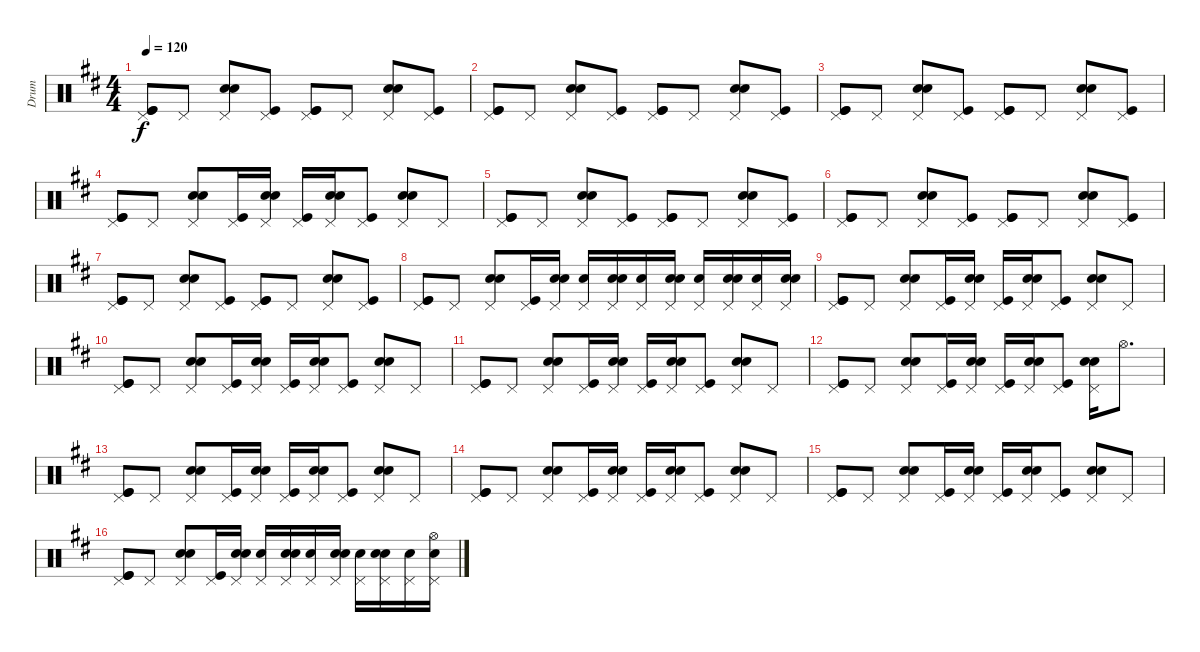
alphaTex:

\track ("Drum" "Drum") {instrument percussion}
\staff {score}
\articulation defaults
\ts (4 4)
\tempo 120
\clef neutral
\ks d
("Pedal Hi-Hat (hit)" "Kick (hit)" "Kick (hit)").8{dy f} "Pedal Hi-Hat (hit)".8 ("Pedal Hi-Hat (hit)" "Electric Snare (hit)" "Electric Snare (hit)").8 ("Pedal Hi-Hat (hit)" "Kick (hit)").8 ("Pedal Hi-Hat (hit)" "Kick (hit)" "Kick (hit)").8 "Pedal Hi-Hat (hit)".8 ("Pedal Hi-Hat (hit)" "Electric Snare (hit)" "Electric Snare (hit)").8 ("Pedal Hi-Hat (hit)" "Kick (hit)").8 |
("Pedal Hi-Hat (hit)" "Kick (hit)" "Kick (hit)").8 "Pedal Hi-Hat (hit)".8 ("Pedal Hi-Hat (hit)" "Electric Snare (hit)" "Electric Snare (hit)").8 ("Pedal Hi-Hat (hit)" "Kick (hit)").8 ("Pedal Hi-Hat (hit)" "Kick (hit)" "Kick (hit)").8 "Pedal Hi-Hat (hit)".8 ("Pedal Hi-Hat (hit)" "Electric Snare (hit)" "Electric Snare (hit)").8 ("Pedal Hi-Hat (hit)" "Kick (hit)").8 |
("Pedal Hi-Hat (hit)" "Kick (hit)" "Kick (hit)").8 "Pedal Hi-Hat (hit)".8 ("Pedal Hi-Hat (hit)" "Electric Snare (hit)" "Electric Snare (hit)").8 ("Pedal Hi-Hat (hit)" "Kick (hit)").8 ("Pedal Hi-Hat (hit)" "Kick (hit)" "Kick (hit)").8 "Pedal Hi-Hat (hit)".8 ("Pedal Hi-Hat (hit)" "Electric Snare (hit)" "Electric Snare (hit)").8 ("Pedal Hi-Hat (hit)" "Kick (hit)").8 |
("Pedal Hi-Hat (hit)" "Kick (hit)" "Kick (hit)").8 "Pedal Hi-Hat (hit)".8 ("Pedal Hi-Hat (hit)" "Electric Snare (hit)" "Electric Snare (hit)").8 ("Pedal Hi-Hat (hit)" "Kick (hit)").16 ("Pedal Hi-Hat (hit)" "Electric Snare (hit)" "Electric Snare (hit)").16 ("Pedal Hi-Hat (hit)" "Kick (hit)").16 ("Pedal Hi-Hat (hit)" "Electric Snare (hit)" "Electric Snare (hit)").16 ("Pedal Hi-Hat (hit)" "Kick (hit)").8 ("Pedal Hi-Hat (hit)" "Electric Snare (hit)" "Electric Snare (hit)").8 "Pedal Hi-Hat (hit)".8 |
("Pedal Hi-Hat (hit)" "Kick (hit)" "Kick (hit)").8 "Pedal Hi-Hat (hit)".8 ("Pedal Hi-Hat (hit)" "Electric Snare (hit)" "Electric Snare (hit)").8 ("Pedal Hi-Hat (hit)" "Kick (hit)").8 ("Pedal Hi-Hat (hit)" "Kick (hit)" "Kick (hit)").8 "Pedal Hi-Hat (hit)".8 ("Pedal Hi-Hat (hit)" "Electric Snare (hit)" "Electric Snare (hit)").8 ("Pedal Hi-Hat (hit)" "Kick (hit)").8 |
("Pedal Hi-Hat (hit)" "Kick (hit)" "Kick (hit)").8 "Pedal Hi-Hat (hit)".8 ("Pedal Hi-Hat (hit)" "Electric Snare (hit)" "Electric Snare (hit)").8 ("Pedal Hi-Hat (hit)" "Kick (hit)").8 ("Pedal Hi-Hat (hit)" "Kick (hit)" "Kick (hit)").8 "Pedal Hi-Hat (hit)".8 ("Pedal Hi-Hat (hit)" "Electric Snare (hit)" "Electric Snare (hit)").8 ("Pedal Hi-Hat (hit)" "Kick (hit)").8 |
("Pedal Hi-Hat (hit)" "Kick (hit)" "Kick (hit)").8 "Pedal Hi-Hat (hit)".8 ("Pedal Hi-Hat (hit)" "Electric Snare (hit)" "Electric Snare (hit)").8 ("Pedal Hi-Hat (hit)" "Kick (hit)").8 ("Pedal Hi-Hat (hit)" "Kick (hit)" "Kick (hit)").8 "Pedal Hi-Hat (hit)".8 ("Pedal Hi-Hat (hit)" "Electric Snare (hit)" "Electric Snare (hit)").8 ("Pedal Hi-Hat (hit)" "Kick (hit)").8 |
("Pedal Hi-Hat (hit)" "Kick (hit)" "Kick (hit)").8 "Pedal Hi-Hat (hit)".8 ("Pedal Hi-Hat (hit)" "Electric Snare (hit)" "Electric Snare (hit)").8 ("Pedal Hi-Hat (hit)" "Kick (hit)").16 ("Pedal Hi-Hat (hit)" "Electric Snare (hit)" "Electric Snare (hit)").16 ("Pedal Hi-Hat (hit)" "Electric Snare (hit)").16 ("Pedal Hi-Hat (hit)" "Electric Snare (hit)" "Electric Snare (hit)").16 ("Pedal Hi-Hat (hit)" "Electric Snare (hit)").16 ("Pedal Hi-Hat (hit)" "Electric Snare (hit)" "Electric Snare (hit)").16 ("Pedal Hi-Hat (hit)" "Electric Snare (hit)").16 ("Pedal Hi-Hat (hit)" "Electric Snare (hit)" "Electric Snare (hit)").16 ("Pedal Hi-Hat (hit)" "Electric Snare (hit)").16 ("Pedal Hi-Hat (hit)" "Electric Snare (hit)" "Electric Snare (hit)").16 |
("Pedal Hi-Hat (hit)" "Kick (hit)" "Kick (hit)").8 "Pedal Hi-Hat (hit)".8 ("Pedal Hi-Hat (hit)" "Electric Snare (hit)" "Electric Snare (hit)").8 ("Pedal Hi-Hat (hit)" "Kick (hit)").16 ("Pedal Hi-Hat (hit)" "Electric Snare (hit)" "Electric Snare (hit)").16 ("Pedal Hi-Hat (hit)" "Kick (hit)").16 ("Pedal Hi-Hat (hit)" "Electric Snare (hit)" "Electric Snare (hit)").16 ("Pedal Hi-Hat (hit)" "Kick (hit)").8 ("Pedal Hi-Hat (hit)" "Electric Snare (hit)" "Electric Snare (hit)").8 "Pedal Hi-Hat (hit)".8 |
("Pedal Hi-Hat (hit)" "Kick (hit)" "Kick (hit)").8 "Pedal Hi-Hat (hit)".8 ("Pedal Hi-Hat (hit)" "Electric Snare (hit)" "Electric Snare (hit)").8 ("Pedal Hi-Hat (hit)" "Kick (hit)").16 ("Pedal Hi-Hat (hit)" "Electric Snare (hit)" "Electric Snare (hit)").16 ("Pedal Hi-Hat (hit)" "Kick (hit)").16 ("Pedal Hi-Hat (hit)" "Electric Snare (hit)" "Electric Snare (hit)").16 ("Pedal Hi-Hat (hit)" "Kick (hit)").8 ("Pedal Hi-Hat (hit)" "Electric Snare (hit)" "Electric Snare (hit)").8 "Pedal Hi-Hat (hit)".8 |
("Pedal Hi-Hat (hit)" "Kick (hit)" "Kick (hit)").8 "Pedal Hi-Hat (hit)".8 ("Pedal Hi-Hat (hit)" "Electric Snare (hit)" "Electric Snare (hit)").8 ("Pedal Hi-Hat (hit)" "Kick (hit)").16 ("Pedal Hi-Hat (hit)" "Electric Snare (hit)" "Electric Snare (hit)").16 ("Pedal Hi-Hat (hit)" "Kick (hit)").16 ("Pedal Hi-Hat (hit)" "Electric Snare (hit)" "Electric Snare (hit)").16 ("Pedal Hi-Hat (hit)" "Kick (hit)").8 ("Pedal Hi-Hat (hit)" "Electric Snare (hit)" "Electric Snare (hit)").8 "Pedal Hi-Hat (hit)".8 |
("Pedal Hi-Hat (hit)" "Kick (hit)" "Kick (hit)").8 "Pedal Hi-Hat (hit)".8 ("Pedal Hi-Hat (hit)" "Electric Snare (hit)" "Electric Snare (hit)").8 ("Pedal Hi-Hat (hit)" "Kick (hit)").16 ("Pedal Hi-Hat (hit)" "Electric Snare (hit)" "Electric Snare (hit)").16 ("Pedal Hi-Hat (hit)" "Kick (hit)").16 ("Pedal Hi-Hat (hit)" "Electric Snare (hit)" "Electric Snare (hit)").16 ("Pedal Hi-Hat (hit)" "Kick (hit)").8 ("Pedal Hi-Hat (hit)" "Electric Snare (hit)" "Electric Snare (hit)").16 "Hi-Hat (open)".8{d} |
("Pedal Hi-Hat (hit)" "Kick (hit)" "Kick (hit)").8 "Pedal Hi-Hat (hit)".8 ("Pedal Hi-Hat (hit)" "Electric Snare (hit)" "Electric Snare (hit)").8 ("Pedal Hi-Hat (hit)" "Kick (hit)").16 ("Pedal Hi-Hat (hit)" "Electric Snare (hit)" "Electric Snare (hit)").16 ("Pedal Hi-Hat (hit)" "Kick (hit)").16 ("Pedal Hi-Hat (hit)" "Electric Snare (hit)" "Electric Snare (hit)").16 ("Pedal Hi-Hat (hit)" "Kick (hit)").8 ("Pedal Hi-Hat (hit)" "Electric Snare (hit)" "Electric Snare (hit)").8 "Pedal Hi-Hat (hit)".8 |
("Pedal Hi-Hat (hit)" "Kick (hit)" "Kick (hit)").8 "Pedal Hi-Hat (hit)".8 ("Pedal Hi-Hat (hit)" "Electric Snare (hit)" "Electric Snare (hit)").8 ("Pedal Hi-Hat (hit)" "Kick (hit)").16 ("Pedal Hi-Hat (hit)" "Electric Snare (hit)" "Electric Snare (hit)").16 ("Pedal Hi-Hat (hit)" "Kick (hit)").16 ("Pedal Hi-Hat (hit)" "Electric Snare (hit)" "Electric Snare (hit)").16 ("Pedal Hi-Hat (hit)" "Kick (hit)").8 ("Pedal Hi-Hat (hit)" "Electric Snare (hit)" "Electric Snare (hit)").8 "Pedal Hi-Hat (hit)".8 |
("Pedal Hi-Hat (hit)" "Kick (hit)" "Kick (hit)").8 "Pedal Hi-Hat (hit)".8 ("Pedal Hi-Hat (hit)" "Electric Snare (hit)" "Electric Snare (hit)").8 ("Pedal Hi-Hat (hit)" "Kick (hit)").16 ("Pedal Hi-Hat (hit)" "Electric Snare (hit)" "Electric Snare (hit)").16 ("Pedal Hi-Hat (hit)" "Kick (hit)").16 ("Pedal Hi-Hat (hit)" "Electric Snare (hit)" "Electric Snare (hit)").16 ("Pedal Hi-Hat (hit)" "Kick (hit)").8 ("Pedal Hi-Hat (hit)" "Electric Snare (hit)" "Electric Snare (hit)").8 "Pedal Hi-Hat (hit)".8 |
("Pedal Hi-Hat (hit)" "Kick (hit)" "Kick (hit)").8 "Pedal Hi-Hat (hit)".8 ("Pedal Hi-Hat (hit)" "Electric Snare (hit)" "Electric Snare (hit)").8 ("Pedal Hi-Hat (hit)" "Kick (hit)").16 ("Pedal Hi-Hat (hit)" "Electric Snare (hit)" "Electric Snare (hit)").16 ("Pedal Hi-Hat (hit)" "Electric Snare (hit)").16 ("Pedal Hi-Hat (hit)" "Electric Snare (hit)" "Electric Snare (hit)").16 ("Pedal Hi-Hat (hit)" "Electric Snare (hit)").16 ("Pedal Hi-Hat (hit)" "Electric Snare (hit)" "Electric Snare (hit)").16 ("Pedal Hi-Hat (hit)" "Electric Snare (hit)").16 ("Pedal Hi-Hat (hit)" "Electric Snare (hit)" "Electric Snare (hit)").16 ("Pedal Hi-Hat (hit)" "Electric Snare (hit)").16 ("Pedal Hi-Hat (hit)" "Hi-Hat (open)" "Electric Snare (hit)").16
